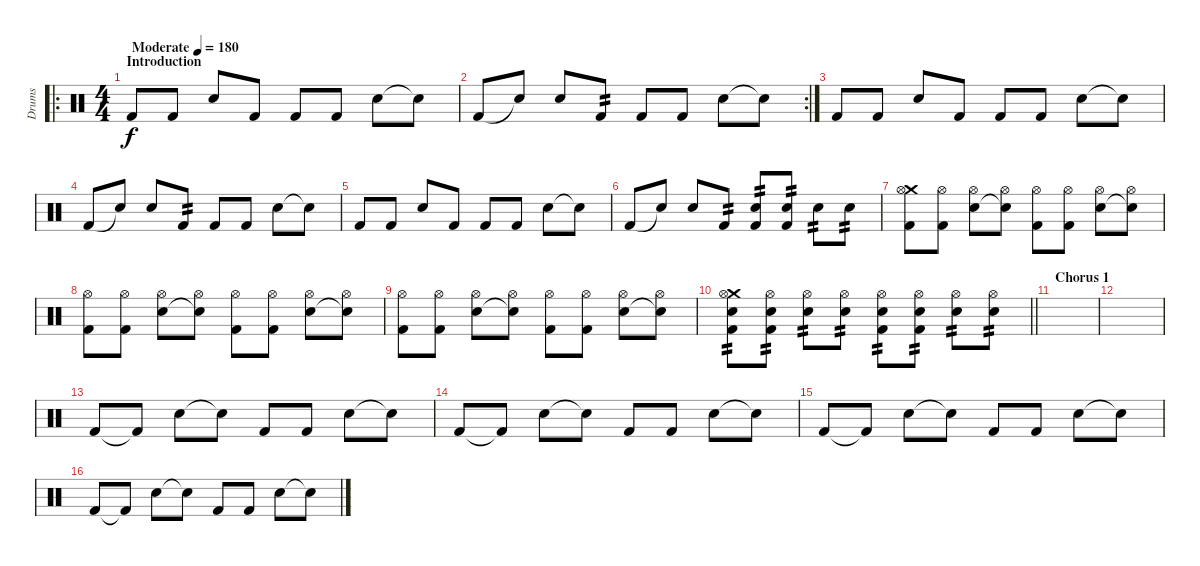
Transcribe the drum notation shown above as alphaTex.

\track ("Drums" "Drums") {instrument percussion}
\staff {score}
\articulation defaults
\ro
\ts (4 4)
\section ("" "Introduction")
\tempo (180 "Moderate")
\clef neutral
\ks c "Kick (hit) 2".8{dy f} "Kick (hit) 2".8 "Electric Snare (hit)".8 "Kick (hit) 2".8 "Kick (hit) 2".8 "Kick (hit) 2".8 "Electric Snare (hit)".8 "Snare (hit)"{t}.8
|
\rc 2 "Kick (hit) 2".8 "Snare (hit)"{t}.8 "Electric Snare (hit)".8 "Kick (hit) 2".8{tp 2} "Kick (hit) 2".8 "Kick (hit) 2".8 "Electric Snare (hit)".8 "Snare (hit)"{t}.8
|
"Kick (hit) 2".8 "Kick (hit) 2".8 "Electric Snare (hit)".8 "Kick (hit) 2".8 "Kick (hit) 2".8 "Kick (hit) 2".8 "Electric Snare (hit)".8 "Snare (hit)"{t}.8 |
"Kick (hit) 2".8 "Snare (hit)"{t}.8 "Electric Snare (hit)".8 "Kick (hit) 2".8{tp 2} "Kick (hit) 2".8 "Kick (hit) 2".8 "Electric Snare (hit)".8 "Snare (hit)"{t}.8 |
"Kick (hit) 2".8 "Kick (hit) 2".8 "Electric Snare (hit)".8 "Kick (hit) 2".8 "Kick (hit) 2".8 "Kick (hit) 2".8 "Electric Snare (hit)".8 "Snare (hit)"{t}.8 |
"Kick (hit) 2".8 "Snare (hit)"{t}.8 "Electric Snare (hit)".8 "Kick (hit) 2".8{tp 2} ("Electric Snare (hit)" "Kick (hit) 2").8{tp 2} ("Electric Snare (hit)" "Kick (hit) 2").8{tp 2} "Electric Snare (hit)".8{tp 2} "Electric Snare (hit)".8{tp 2} |
("Crash medium (hit)" "Hi-Hat (open)" "Kick (hit) 2").8 ("Hi-Hat (open)" "Kick (hit) 2").8 ("Hi-Hat (open)" "Electric Snare (hit)").8 ("Hi-Hat (open)" "Snare (hit)"{t}).8 ("Hi-Hat (open)" "Kick (hit) 2").8 ("Hi-Hat (open)" "Kick (hit) 2").8 ("Hi-Hat (open)" "Electric Snare (hit)").8 ("Hi-Hat (open)" "Snare (hit)"{t}).8 |
("Hi-Hat (open)" "Kick (hit) 2").8 ("Hi-Hat (open)" "Kick (hit) 2").8 ("Hi-Hat (open)" "Electric Snare (hit)").8 ("Hi-Hat (open)" "Snare (hit)"{t}).8 ("Hi-Hat (open)" "Kick (hit) 2").8 ("Hi-Hat (open)" "Kick (hit) 2").8 ("Hi-Hat (open)" "Electric Snare (hit)").8 ("Hi-Hat (open)" "Snare (hit)"{t}).8 |
("Hi-Hat (open)" "Kick (hit) 2").8 ("Hi-Hat (open)" "Kick (hit) 2").8 ("Hi-Hat (open)" "Electric Snare (hit)").8 ("Hi-Hat (open)" "Snare (hit)"{t}).8 ("Hi-Hat (open)" "Kick (hit) 2").8 ("Hi-Hat (open)" "Kick (hit) 2").8 ("Hi-Hat (open)" "Electric Snare (hit)").8 ("Hi-Hat (open)" "Snare (hit)"{t}).8 |
\barLineRight lightlight
("Crash medium (hit)" "Hi-Hat (open)" "Electric Snare (hit)" "Kick (hit) 2").8{tp 2} ("Hi-Hat (open)" "Electric Snare (hit)" "Kick (hit) 2").8{tp 2} ("Hi-Hat (open)" "Electric Snare (hit)").8{tp 2} ("Hi-Hat (open)" "Electric Snare (hit)").8{tp 2} ("Hi-Hat (open)" "Electric Snare (hit)" "Kick (hit) 2").8{tp 2} ("Hi-Hat (open)" "Electric Snare (hit)" "Kick (hit) 2").8{tp 2} ("Hi-Hat (open)" "Electric Snare (hit)").8{tp 2} ("Hi-Hat (open)" "Electric Snare (hit)").8{tp 2} |
\section ("" "Chorus 1")
|
|
"Kick (hit) 2".8 "Kick (hit) 2"{t}.8 "Electric Snare (hit)".8 "Snare (hit)"{t}.8 "Kick (hit) 2".8 "Kick (hit) 2".8 "Electric Snare (hit)".8 "Snare (hit)"{t}.8 |
"Kick (hit) 2".8 "Kick (hit) 2"{t}.8 "Electric Snare (hit)".8 "Snare (hit)"{t}.8 "Kick (hit) 2".8 "Kick (hit) 2".8 "Electric Snare (hit)".8 "Snare (hit)"{t}.8 |
"Kick (hit) 2".8 "Kick (hit) 2"{t}.8 "Electric Snare (hit)".8 "Snare (hit)"{t}.8 "Kick (hit) 2".8 "Kick (hit) 2".8 "Electric Snare (hit)".8 "Snare (hit)"{t}.8 |
"Kick (hit) 2".8 "Kick (hit) 2"{t}.8 "Electric Snare (hit)".8 "Snare (hit)"{t}.8 "Kick (hit) 2".8 "Kick (hit) 2".8 "Electric Snare (hit)".8 "Snare (hit)"{t}.8
